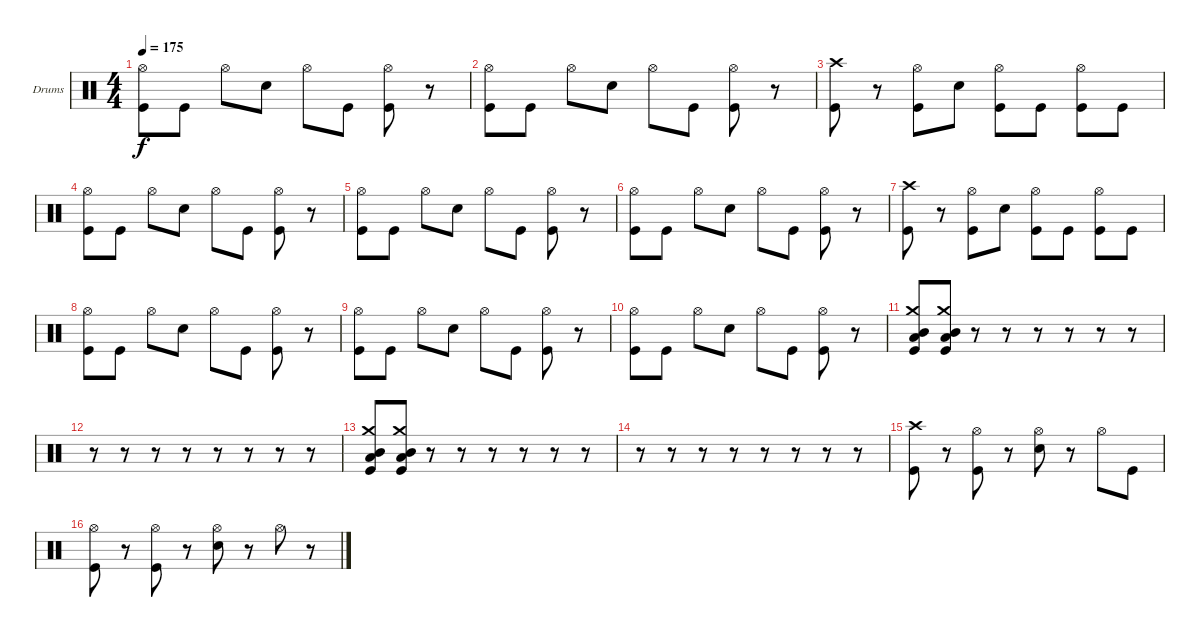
\bracketExtendMode groupsimilarinstruments
\firstSystemTrackNameOrientation horizontal
\otherSystemsTrackNameOrientation horizontal
\track ("Drumkit" "Drums") {instrument percussion}
\staff {score}
\articulation defaults
\ts (4 4)
\tempo 175
\clef neutral
\ks c
("Hi-Hat (open)" "Kick (hit)").8{dy f} "Kick (hit)".8 "Hi-Hat (open)".8 "Snare (hit) 2".8 "Hi-Hat (open)".8 "Kick (hit)".8 ("Hi-Hat (open)" "Kick (hit)").8 r.8 |
("Hi-Hat (open)" "Kick (hit)").8 "Kick (hit)".8 "Hi-Hat (open)".8 "Snare (hit) 2".8 "Hi-Hat (open)".8 "Kick (hit)".8 ("Hi-Hat (open)" "Kick (hit)").8 r.8 |
("Crash high (hit)" "Kick (hit)").8 r.8 ("Hi-Hat (open)" "Kick (hit)").8 "Snare (hit) 2".8 ("Hi-Hat (open)" "Kick (hit)").8 "Kick (hit)".8 ("Hi-Hat (open)" "Kick (hit)").8 "Kick (hit)".8 |
("Hi-Hat (open)" "Kick (hit)").8 "Kick (hit)".8 "Hi-Hat (open)".8 "Snare (hit) 2".8 "Hi-Hat (open)".8 "Kick (hit)".8 ("Hi-Hat (open)" "Kick (hit)").8 r.8 |
("Hi-Hat (open)" "Kick (hit)").8 "Kick (hit)".8 "Hi-Hat (open)".8 "Snare (hit) 2".8 "Hi-Hat (open)".8 "Kick (hit)".8 ("Hi-Hat (open)" "Kick (hit)").8 r.8 |
("Hi-Hat (open)" "Kick (hit)").8 "Kick (hit)".8 "Hi-Hat (open)".8 "Snare (hit) 2".8 "Hi-Hat (open)".8 "Kick (hit)".8 ("Hi-Hat (open)" "Kick (hit)").8 r.8 |
("Crash high (hit)" "Kick (hit)").8 r.8 ("Hi-Hat (open)" "Kick (hit)").8 "Snare (hit) 2".8 ("Hi-Hat (open)" "Kick (hit)").8 "Kick (hit)".8 ("Hi-Hat (open)" "Kick (hit)").8 "Kick (hit)".8 |
("Hi-Hat (open)" "Kick (hit)").8 "Kick (hit)".8 "Hi-Hat (open)".8 "Snare (hit) 2".8 "Hi-Hat (open)".8 "Kick (hit)".8 ("Hi-Hat (open)" "Kick (hit)").8 r.8 |
("Hi-Hat (open)" "Kick (hit)").8 "Kick (hit)".8 "Hi-Hat (open)".8 "Snare (hit) 2".8 "Hi-Hat (open)".8 "Kick (hit)".8 ("Hi-Hat (open)" "Kick (hit)").8 r.8 |
("Hi-Hat (open)" "Kick (hit)").8 "Kick (hit)".8 "Hi-Hat (open)".8 "Snare (hit) 2".8 "Hi-Hat (open)".8 "Kick (hit)".8 ("Hi-Hat (open)" "Kick (hit)").8 r.8 |
("Crash medium (hit)" "Low Tom (hit)" "Mid Tom (hit)" "Kick (hit)").8 ("Crash medium (hit)" "Low Tom (hit)" "Mid Tom (hit)" "Kick (hit)").8 r.8 r.8 r.8 r.8 r.8 r.8 |
r.8 r.8 r.8 r.8 r.8 r.8 r.8 r.8 |
("Crash medium (hit)" "Low Tom (hit)" "Mid Tom (hit)" "Kick (hit)").8 ("Crash medium (hit)" "Low Tom (hit)" "Mid Tom (hit)" "Kick (hit)").8 r.8 r.8 r.8 r.8 r.8 r.8 |
r.8 r.8 r.8 r.8 r.8 r.8 r.8 r.8 |
("Crash high (hit)" "Kick (hit)").8 r.8 ("Hi-Hat (open)" "Kick (hit)").8 r.8 ("Hi-Hat (open)" "Snare (hit) 2").8 r.8 "Hi-Hat (open)".8 "Kick (hit)".8 |
("Hi-Hat (open)" "Kick (hit)").8 r.8 ("Hi-Hat (open)" "Kick (hit)").8 r.8 ("Hi-Hat (open)" "Snare (hit) 2").8 r.8 "Hi-Hat (open)".8 r.8
